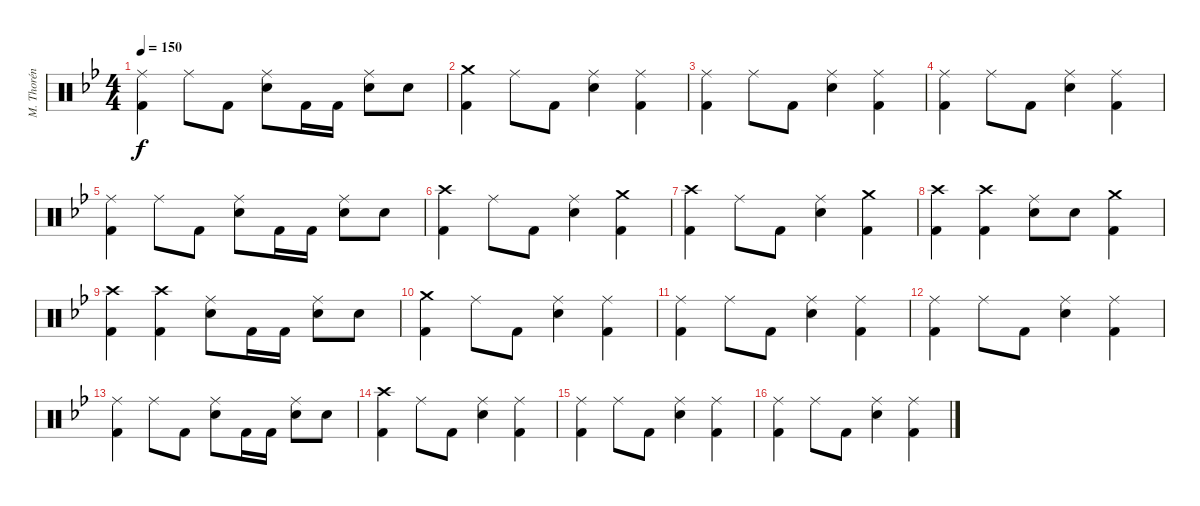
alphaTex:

\track ("M. Thorén (Drums)" "M. Thorén ") {instrument percussion}
\staff {score}
\articulation defaults
\ts (4 4)
\tempo 150
\clef neutral
\ks gminor
("Ride (middle)" "Kick (hit) 2").4{dy f} "Ride (middle)".8 "Kick (hit) 2".8 ("Ride (middle)" "Electric Snare (hit)").8 "Kick (hit) 2".16 "Kick (hit) 2".16 ("Ride (middle)" "Electric Snare (hit)").8 "Electric Snare (hit)".8 |
("Crash medium (hit)" "Kick (hit) 2").4 "Ride (middle)".8 "Kick (hit) 2".8 ("Ride (middle)" "Electric Snare (hit)").4 ("Ride (middle)" "Kick (hit) 2").4 |
("Ride (middle)" "Kick (hit) 2").4 "Ride (middle)".8 "Kick (hit) 2".8 ("Ride (middle)" "Electric Snare (hit)").4 ("Ride (middle)" "Kick (hit) 2").4 |
("Ride (middle)" "Kick (hit) 2").4 "Ride (middle)".8 "Kick (hit) 2".8 ("Ride (middle)" "Electric Snare (hit)").4 ("Ride (middle)" "Kick (hit) 2").4 |
("Ride (middle)" "Kick (hit) 2").4 "Ride (middle)".8 "Kick (hit) 2".8 ("Ride (middle)" "Electric Snare (hit)").8 "Kick (hit) 2".16 "Kick (hit) 2".16 ("Ride (middle)" "Electric Snare (hit)").8 "Electric Snare (hit)".8 |
("Crash high (hit)" "Kick (hit) 2").4 "Ride (middle)".8 "Kick (hit) 2".8 ("Ride (middle)" "Electric Snare (hit)").4 ("Crash medium (hit)" "Kick (hit) 2").4 |
("Crash high (hit)" "Kick (hit) 2").4 "Ride (middle)".8 "Kick (hit) 2".8 ("Ride (middle)" "Electric Snare (hit)").4 ("Crash medium (hit)" "Kick (hit) 2").4 |
("Crash high (hit)" "Kick (hit) 2").4 ("Crash high (hit)" "Kick (hit) 2").4 ("Ride (middle)" "Electric Snare (hit)").8 "Electric Snare (hit)".8 ("Crash medium (hit)" "Kick (hit) 2").4 |
("Crash high (hit)" "Kick (hit) 2").4 ("Crash high (hit)" "Kick (hit) 2").4 ("Ride (middle)" "Electric Snare (hit)").8 "Kick (hit) 2".16 "Kick (hit) 2".16 ("Ride (middle)" "Electric Snare (hit)").8 "Electric Snare (hit)".8 |
("Crash medium (hit)" "Kick (hit) 2").4 "Ride (middle)".8 "Kick (hit) 2".8 ("Ride (middle)" "Electric Snare (hit)").4 ("Ride (middle)" "Kick (hit) 2").4 |
("Ride (middle)" "Kick (hit) 2").4 "Ride (middle)".8 "Kick (hit) 2".8 ("Ride (middle)" "Electric Snare (hit)").4 ("Ride (middle)" "Kick (hit) 2").4 |
("Ride (middle)" "Kick (hit) 2").4 "Ride (middle)".8 "Kick (hit) 2".8 ("Ride (middle)" "Electric Snare (hit)").4 ("Ride (middle)" "Kick (hit) 2").4 |
("Ride (middle)" "Kick (hit) 2").4 "Ride (middle)".8 "Kick (hit) 2".8 ("Ride (middle)" "Electric Snare (hit)").8 "Kick (hit) 2".16 "Kick (hit) 2".16 ("Ride (middle)" "Electric Snare (hit)").8 "Electric Snare (hit)".8 |
("Crash high (hit)" "Kick (hit) 2").4 "Ride (middle)".8 "Kick (hit) 2".8 ("Ride (middle)" "Electric Snare (hit)").4 ("Ride (middle)" "Kick (hit) 2").4 |
("Ride (middle)" "Kick (hit) 2").4 "Ride (middle)".8 "Kick (hit) 2".8 ("Ride (middle)" "Electric Snare (hit)").4 ("Ride (middle)" "Kick (hit) 2").4 |
("Ride (middle)" "Kick (hit) 2").4 "Ride (middle)".8 "Kick (hit) 2".8 ("Ride (middle)" "Electric Snare (hit)").4 ("Ride (middle)" "Kick (hit) 2").4
